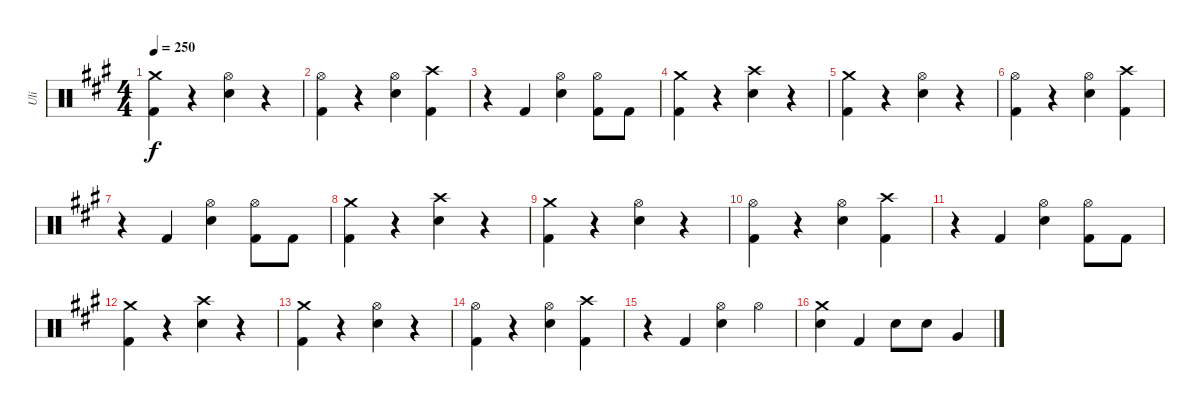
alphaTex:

\track ("Uli" "Uli") {instrument percussion}
\staff {score}
\articulation defaults
\ts (4 4)
\tempo 250
\clef neutral
\ks a
("Crash medium (hit)" "Kick (hit) 2").4{dy f} r.4 ("Hi-Hat (open)" "Snare (hit) 2").4 r.4 |
("Hi-Hat (open)" "Kick (hit) 2").4 r.4 ("Hi-Hat (open)" "Snare (hit) 2").4 ("Crash high (hit)" "Kick (hit) 2").4 |
r.4 "Kick (hit) 2".4 ("Hi-Hat (open)" "Snare (hit) 2").4 ("Hi-Hat (open)" "Kick (hit) 2").8 "Kick (hit) 2".8 |
("Crash medium (hit)" "Kick (hit) 2").4 r.4 ("Crash high (hit)" "Snare (hit) 2").4 r.4 |
("Crash medium (hit)" "Kick (hit) 2").4 r.4 ("Hi-Hat (open)" "Snare (hit) 2").4 r.4 |
("Hi-Hat (open)" "Kick (hit) 2").4 r.4 ("Hi-Hat (open)" "Snare (hit) 2").4 ("Crash high (hit)" "Kick (hit) 2").4 |
r.4 "Kick (hit) 2".4 ("Hi-Hat (open)" "Snare (hit) 2").4 ("Hi-Hat (open)" "Kick (hit) 2").8 "Kick (hit) 2".8 |
("Crash medium (hit)" "Kick (hit) 2").4 r.4 ("Crash high (hit)" "Snare (hit) 2").4 r.4 |
("Crash medium (hit)" "Kick (hit) 2").4 r.4 ("Hi-Hat (open)" "Snare (hit) 2").4 r.4 |
("Hi-Hat (open)" "Kick (hit) 2").4 r.4 ("Hi-Hat (open)" "Snare (hit) 2").4 ("Crash high (hit)" "Kick (hit) 2").4 |
r.4 "Kick (hit) 2".4 ("Hi-Hat (open)" "Snare (hit) 2").4 ("Hi-Hat (open)" "Kick (hit) 2").8 "Kick (hit) 2".8 |
("Crash medium (hit)" "Kick (hit) 2").4 r.4 ("Crash high (hit)" "Snare (hit) 2").4 r.4 |
("Crash medium (hit)" "Kick (hit) 2").4 r.4 ("Hi-Hat (open)" "Snare (hit) 2").4 r.4 |
("Hi-Hat (open)" "Kick (hit) 2").4 r.4 ("Hi-Hat (open)" "Snare (hit) 2").4 ("Crash high (hit)" "Kick (hit) 2").4 |
r.4 "Kick (hit) 2".4 ("Hi-Hat (open)" "Snare (hit) 2").4 "Hi-Hat (open)".4 |
("Crash medium (hit)" "Snare (hit) 2").4 "Kick (hit) 2".4 "Snare (hit) 2".8 "Snare (hit) 2".8 "Very Low Tom (hit)".4
